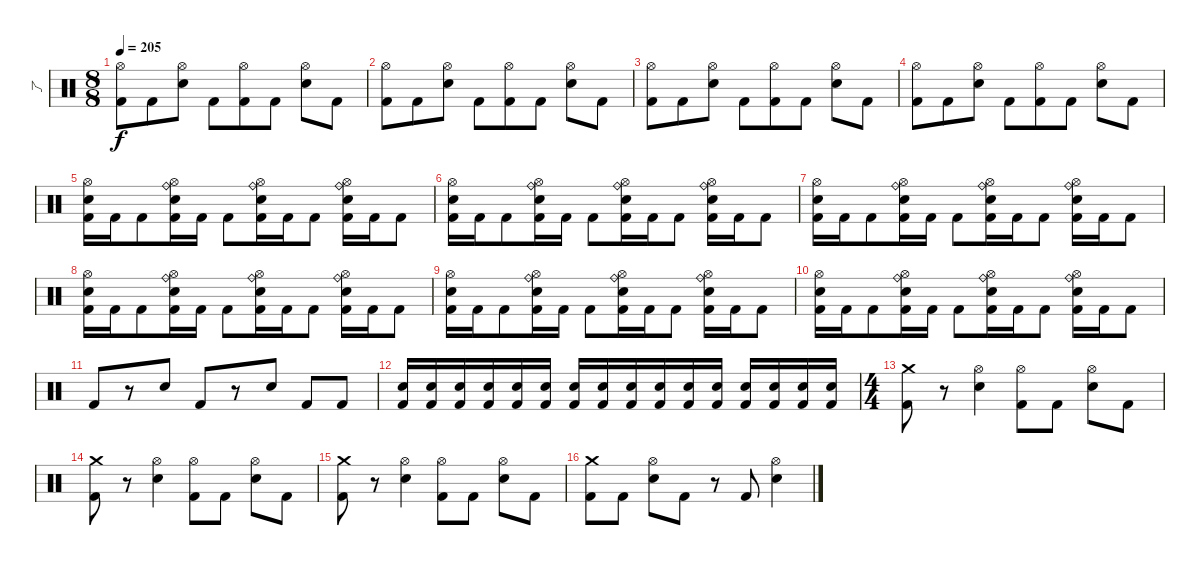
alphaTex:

\track ("了" "了") {instrument percussion}
\staff {score}
\articulation defaults
\ts (8 8)
\tempo 205
\clef neutral
\ks c
("Hi-Hat (open)" "Kick (hit) 2").8{dy f} "Kick (hit) 2".8 ("Hi-Hat (open)" "Electric Snare (hit)").8 "Kick (hit) 2".8 ("Hi-Hat (open)" "Kick (hit) 2").8 "Kick (hit) 2".8 ("Hi-Hat (open)" "Electric Snare (hit)").8 "Kick (hit) 2".8 |
("Hi-Hat (open)" "Kick (hit) 2").8 "Kick (hit) 2".8 ("Hi-Hat (open)" "Electric Snare (hit)").8 "Kick (hit) 2".8 ("Hi-Hat (open)" "Kick (hit) 2").8 "Kick (hit) 2".8 ("Hi-Hat (open)" "Electric Snare (hit)").8 "Kick (hit) 2".8 |
("Hi-Hat (open)" "Kick (hit) 2").8 "Kick (hit) 2".8 ("Hi-Hat (open)" "Electric Snare (hit)").8 "Kick (hit) 2".8 ("Hi-Hat (open)" "Kick (hit) 2").8 "Kick (hit) 2".8 ("Hi-Hat (open)" "Electric Snare (hit)").8 "Kick (hit) 2".8 |
("Hi-Hat (open)" "Kick (hit) 2").8 "Kick (hit) 2".8 ("Hi-Hat (open)" "Electric Snare (hit)").8 "Kick (hit) 2".8 ("Hi-Hat (open)" "Kick (hit) 2").8 "Kick (hit) 2".8 ("Hi-Hat (open)" "Electric Snare (hit)").8 "Kick (hit) 2".8 |
("Hi-Hat (open)" "Electric Snare (hit)" "Kick (hit) 2").16 "Kick (hit) 2".16 "Kick (hit) 2".8 ("Hi-Hat (open)" "Electric Snare (hit)" "Kick (hit) 2" "Ride (bell)").16 "Kick (hit) 2".16 "Kick (hit) 2".8 ("Hi-Hat (open)" "Electric Snare (hit)" "Kick (hit) 2" "Ride (bell)").16 "Kick (hit) 2".16 "Kick (hit) 2".8 ("Hi-Hat (open)" "Electric Snare (hit)" "Kick (hit) 2" "Ride (bell)").16 "Kick (hit) 2".16 "Kick (hit) 2".8 |
("Hi-Hat (open)" "Electric Snare (hit)" "Kick (hit) 2").16 "Kick (hit) 2".16 "Kick (hit) 2".8 ("Hi-Hat (open)" "Electric Snare (hit)" "Kick (hit) 2" "Ride (bell)").16 "Kick (hit) 2".16 "Kick (hit) 2".8 ("Hi-Hat (open)" "Electric Snare (hit)" "Kick (hit) 2" "Ride (bell)").16 "Kick (hit) 2".16 "Kick (hit) 2".8 ("Hi-Hat (open)" "Electric Snare (hit)" "Kick (hit) 2" "Ride (bell)").16 "Kick (hit) 2".16 "Kick (hit) 2".8 |
("Hi-Hat (open)" "Electric Snare (hit)" "Kick (hit) 2").16 "Kick (hit) 2".16 "Kick (hit) 2".8 ("Hi-Hat (open)" "Electric Snare (hit)" "Kick (hit) 2" "Ride (bell)").16 "Kick (hit) 2".16 "Kick (hit) 2".8 ("Hi-Hat (open)" "Electric Snare (hit)" "Kick (hit) 2" "Ride (bell)").16 "Kick (hit) 2".16 "Kick (hit) 2".8 ("Hi-Hat (open)" "Electric Snare (hit)" "Kick (hit) 2" "Ride (bell)").16 "Kick (hit) 2".16 "Kick (hit) 2".8 |
("Hi-Hat (open)" "Electric Snare (hit)" "Kick (hit) 2").16 "Kick (hit) 2".16 "Kick (hit) 2".8 ("Hi-Hat (open)" "Electric Snare (hit)" "Kick (hit) 2" "Ride (bell)").16 "Kick (hit) 2".16 "Kick (hit) 2".8 ("Hi-Hat (open)" "Electric Snare (hit)" "Kick (hit) 2" "Ride (bell)").16 "Kick (hit) 2".16 "Kick (hit) 2".8 ("Hi-Hat (open)" "Electric Snare (hit)" "Kick (hit) 2" "Ride (bell)").16 "Kick (hit) 2".16 "Kick (hit) 2".8 |
("Hi-Hat (open)" "Electric Snare (hit)" "Kick (hit) 2").16 "Kick (hit) 2".16 "Kick (hit) 2".8 ("Hi-Hat (open)" "Electric Snare (hit)" "Kick (hit) 2" "Ride (bell)").16 "Kick (hit) 2".16 "Kick (hit) 2".8 ("Hi-Hat (open)" "Electric Snare (hit)" "Kick (hit) 2" "Ride (bell)").16 "Kick (hit) 2".16 "Kick (hit) 2".8 ("Hi-Hat (open)" "Electric Snare (hit)" "Kick (hit) 2" "Ride (bell)").16 "Kick (hit) 2".16 "Kick (hit) 2".8 |
("Hi-Hat (open)" "Electric Snare (hit)" "Kick (hit) 2").16 "Kick (hit) 2".16 "Kick (hit) 2".8 ("Hi-Hat (open)" "Electric Snare (hit)" "Kick (hit) 2" "Ride (bell)").16 "Kick (hit) 2".16 "Kick (hit) 2".8 ("Hi-Hat (open)" "Electric Snare (hit)" "Kick (hit) 2" "Ride (bell)").16 "Kick (hit) 2".16 "Kick (hit) 2".8 ("Hi-Hat (open)" "Electric Snare (hit)" "Kick (hit) 2" "Ride (bell)").16 "Kick (hit) 2".16 "Kick (hit) 2".8 |
"Kick (hit) 2".8 r.8 "Snare (hit) 2".8 "Kick (hit) 2".8 r.8 "Snare (hit) 2".8 "Kick (hit) 2".8 "Kick (hit) 2".8 |
("Snare (hit) 2" "Kick (hit) 2").16 ("Snare (hit) 2" "Kick (hit) 2").16 ("Snare (hit) 2" "Kick (hit) 2").16 ("Snare (hit) 2" "Kick (hit) 2").16 ("Snare (hit) 2" "Kick (hit) 2").16 ("Snare (hit) 2" "Kick (hit) 2").16 ("Snare (hit) 2" "Kick (hit) 2").16 ("Snare (hit) 2" "Kick (hit) 2").16 ("Snare (hit) 2" "Kick (hit) 2").16 ("Snare (hit) 2" "Kick (hit) 2").16 ("Snare (hit) 2" "Kick (hit) 2").16 ("Snare (hit) 2" "Kick (hit) 2").16 ("Snare (hit) 2" "Kick (hit) 2").16 ("Snare (hit) 2" "Kick (hit) 2").16 ("Snare (hit) 2" "Kick (hit) 2").16 ("Snare (hit) 2" "Kick (hit) 2").16 |
\ts (4 4)
("Kick (hit) 2" "Crash medium (hit)").8 r.8 ("Hi-Hat (open)" "Electric Snare (hit)").4 ("Hi-Hat (open)" "Kick (hit) 2").8 "Kick (hit) 2".8 ("Hi-Hat (open)" "Electric Snare (hit)").8 "Kick (hit) 2".8 |
("Kick (hit) 2" "Crash medium (hit)").8 r.8 ("Hi-Hat (open)" "Electric Snare (hit)").4 ("Hi-Hat (open)" "Kick (hit) 2").8 "Kick (hit) 2".8 ("Hi-Hat (open)" "Electric Snare (hit)").8 "Kick (hit) 2".8 |
("Kick (hit) 2" "Crash medium (hit)").8 r.8 ("Hi-Hat (open)" "Electric Snare (hit)").4 ("Hi-Hat (open)" "Kick (hit) 2").8 "Kick (hit) 2".8 ("Hi-Hat (open)" "Electric Snare (hit)").8 "Kick (hit) 2".8 |
("Kick (hit) 2" "Crash medium (hit)").8 "Kick (hit) 2".8 ("Hi-Hat (open)" "Electric Snare (hit)").8 "Kick (hit) 2".8 r.8 "Kick (hit) 2".8 ("Hi-Hat (open)" "Electric Snare (hit)").4
